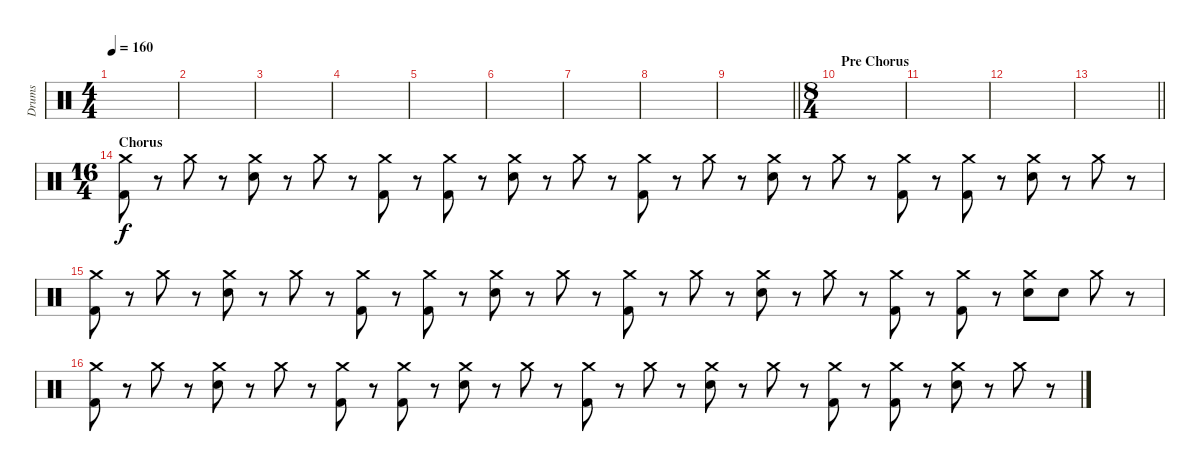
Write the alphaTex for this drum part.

\track ("Drums" "Drums") {instrument percussion}
\staff {score}
\articulation defaults
\ts (4 4)
\tempo 160
\clef neutral
\ks c
|
|
|
|
|
|
|
|
\barLineRight lightlight
|
\ts (8 4)
\section ("" "Pre Chorus")
|
|
|
\barLineRight lightlight
|
\ts (16 4)
\section ("" "Chorus")
("Crash medium (hit)" "Kick (hit) 2").8 r.8 "Crash medium (hit)".8 r.8 ("Crash medium (hit)" "Snare (hit) 2").8 r.8 "Crash medium (hit)".8 r.8 ("Crash medium (hit)" "Kick (hit) 2").8 r.8 ("Crash medium (hit)" "Kick (hit) 2").8 r.8 ("Crash medium (hit)" "Snare (hit) 2").8 r.8 "Crash medium (hit)".8 r.8 ("Crash medium (hit)" "Kick (hit) 2").8 r.8 "Crash medium (hit)".8 r.8 ("Crash medium (hit)" "Snare (hit) 2").8 r.8 "Crash medium (hit)".8 r.8 ("Crash medium (hit)" "Kick (hit) 2").8 r.8 ("Crash medium (hit)" "Kick (hit) 2").8 r.8 ("Crash medium (hit)" "Snare (hit) 2").8 r.8 "Crash medium (hit)".8 r.8 |
("Crash medium (hit)" "Kick (hit) 2").8 r.8 "Crash medium (hit)".8 r.8 ("Crash medium (hit)" "Snare (hit) 2").8 r.8 "Crash medium (hit)".8 r.8 ("Crash medium (hit)" "Kick (hit) 2").8 r.8 ("Crash medium (hit)" "Kick (hit) 2").8 r.8 ("Crash medium (hit)" "Snare (hit) 2").8 r.8 "Crash medium (hit)".8 r.8 ("Crash medium (hit)" "Kick (hit) 2").8 r.8 "Crash medium (hit)".8 r.8 ("Crash medium (hit)" "Snare (hit) 2").8 r.8 "Crash medium (hit)".8 r.8 ("Crash medium (hit)" "Kick (hit) 2").8 r.8 ("Crash medium (hit)" "Kick (hit) 2").8 r.8 ("Crash medium (hit)" "Snare (hit) 2").8 "Snare (hit) 2".8 "Crash medium (hit)".8 r.8 |
("Crash medium (hit)" "Kick (hit) 2").8 r.8 "Crash medium (hit)".8 r.8 ("Crash medium (hit)" "Snare (hit) 2").8 r.8 "Crash medium (hit)".8 r.8 ("Crash medium (hit)" "Kick (hit) 2").8 r.8 ("Crash medium (hit)" "Kick (hit) 2").8 r.8 ("Crash medium (hit)" "Snare (hit) 2").8 r.8 "Crash medium (hit)".8 r.8 ("Crash medium (hit)" "Kick (hit) 2").8 r.8 "Crash medium (hit)".8 r.8 ("Crash medium (hit)" "Snare (hit) 2").8 r.8 "Crash medium (hit)".8 r.8 ("Crash medium (hit)" "Kick (hit) 2").8 r.8 ("Crash medium (hit)" "Kick (hit) 2").8 r.8 ("Crash medium (hit)" "Snare (hit) 2").8 r.8 "Crash medium (hit)".8 r.8
